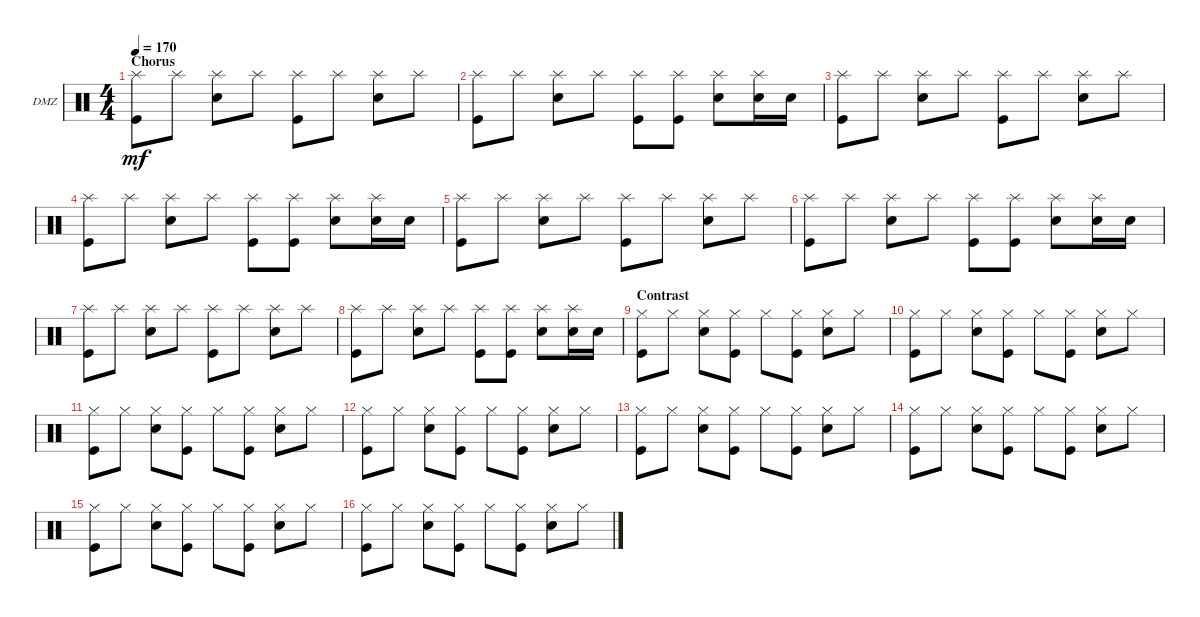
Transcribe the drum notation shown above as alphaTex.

\defaultSystemsLayout 4
\bracketExtendMode groupsimilarinstruments
\firstSystemTrackNameOrientation horizontal
\otherSystemsTrackNameOrientation horizontal
\track ("Drumz" "DMZ") {instrument percussion}
\staff {score}
\articulation defaults
\ts (4 4)
\section ("" "Chorus")
\tempo 170
\clef neutral
\ks c
("Splash (hit)" "Kick (hit)").8{dy mf} "Splash (hit)".8 ("Splash (hit)" "Snare (hit) 2").8 "Splash (hit)".8 ("Splash (hit)" "Kick (hit)").8 "Splash (hit)".8 ("Splash (hit)" "Snare (hit) 2").8 "Splash (hit)".8 |
("Splash (hit)" "Kick (hit)").8 "Splash (hit)".8 ("Splash (hit)" "Snare (hit) 2").8 "Splash (hit)".8 ("Splash (hit)" "Kick (hit)").8 ("Splash (hit)" "Kick (hit)").8 ("Splash (hit)" "Snare (hit) 2").8 ("Snare (hit) 2" "Splash (hit)").16 "Snare (hit) 2".16 |
("Splash (hit)" "Kick (hit)").8 "Splash (hit)".8 ("Splash (hit)" "Snare (hit) 2").8 "Splash (hit)".8 ("Splash (hit)" "Kick (hit)").8 "Splash (hit)".8 ("Splash (hit)" "Snare (hit) 2").8 "Splash (hit)".8 |
("Splash (hit)" "Kick (hit)").8 "Splash (hit)".8 ("Splash (hit)" "Snare (hit) 2").8 "Splash (hit)".8 ("Splash (hit)" "Kick (hit)").8 ("Splash (hit)" "Kick (hit)").8 ("Splash (hit)" "Snare (hit) 2").8 ("Snare (hit) 2" "Splash (hit)").16 "Snare (hit) 2".16 |
("Splash (hit)" "Kick (hit)").8 "Splash (hit)".8 ("Splash (hit)" "Snare (hit) 2").8 "Splash (hit)".8 ("Splash (hit)" "Kick (hit)").8 "Splash (hit)".8 ("Splash (hit)" "Snare (hit) 2").8 "Splash (hit)".8 |
("Splash (hit)" "Kick (hit)").8 "Splash (hit)".8 ("Splash (hit)" "Snare (hit) 2").8 "Splash (hit)".8 ("Splash (hit)" "Kick (hit)").8 ("Splash (hit)" "Kick (hit)").8 ("Splash (hit)" "Snare (hit) 2").8 ("Snare (hit) 2" "Splash (hit)").16 "Snare (hit) 2".16 |
("Splash (hit)" "Kick (hit)").8 "Splash (hit)".8 ("Splash (hit)" "Snare (hit) 2").8 "Splash (hit)".8 ("Splash (hit)" "Kick (hit)").8 "Splash (hit)".8 ("Splash (hit)" "Snare (hit) 2").8 "Splash (hit)".8 |
("Splash (hit)" "Kick (hit)").8 "Splash (hit)".8 ("Splash (hit)" "Snare (hit) 2").8 "Splash (hit)".8 ("Splash (hit)" "Kick (hit)").8 ("Splash (hit)" "Kick (hit)").8 ("Splash (hit)" "Snare (hit) 2").8 ("Snare (hit) 2" "Splash (hit)").16 "Snare (hit) 2".16 |
\section ("" "Contrast")
("Hi-Hat (closed)" "Kick (hit)").8 "Hi-Hat (closed)".8 ("Hi-Hat (closed)" "Snare (hit) 2").8 ("Hi-Hat (closed)" "Kick (hit)").8 "Hi-Hat (closed)".8 ("Hi-Hat (closed)" "Kick (hit)").8 ("Hi-Hat (closed)" "Snare (hit) 2").8 "Hi-Hat (closed)".8 |
("Hi-Hat (closed)" "Kick (hit)").8 "Hi-Hat (closed)".8 ("Hi-Hat (closed)" "Snare (hit) 2").8 ("Hi-Hat (closed)" "Kick (hit)").8 "Hi-Hat (closed)".8 ("Hi-Hat (closed)" "Kick (hit)").8 ("Hi-Hat (closed)" "Snare (hit) 2").8 "Hi-Hat (closed)".8 |
("Hi-Hat (closed)" "Kick (hit)").8 "Hi-Hat (closed)".8 ("Hi-Hat (closed)" "Snare (hit) 2").8 ("Hi-Hat (closed)" "Kick (hit)").8 "Hi-Hat (closed)".8 ("Hi-Hat (closed)" "Kick (hit)").8 ("Hi-Hat (closed)" "Snare (hit) 2").8 "Hi-Hat (closed)".8 |
("Hi-Hat (closed)" "Kick (hit)").8 "Hi-Hat (closed)".8 ("Hi-Hat (closed)" "Snare (hit) 2").8 ("Hi-Hat (closed)" "Kick (hit)").8 "Hi-Hat (closed)".8 ("Hi-Hat (closed)" "Kick (hit)").8 ("Hi-Hat (closed)" "Snare (hit) 2").8 "Hi-Hat (closed)".8 |
("Hi-Hat (closed)" "Kick (hit)").8 "Hi-Hat (closed)".8 ("Hi-Hat (closed)" "Snare (hit) 2").8 ("Hi-Hat (closed)" "Kick (hit)").8 "Hi-Hat (closed)".8 ("Hi-Hat (closed)" "Kick (hit)").8 ("Hi-Hat (closed)" "Snare (hit) 2").8 "Hi-Hat (closed)".8 |
("Hi-Hat (closed)" "Kick (hit)").8 "Hi-Hat (closed)".8 ("Hi-Hat (closed)" "Snare (hit) 2").8 ("Hi-Hat (closed)" "Kick (hit)").8 "Hi-Hat (closed)".8 ("Hi-Hat (closed)" "Kick (hit)").8 ("Hi-Hat (closed)" "Snare (hit) 2").8 "Hi-Hat (closed)".8 |
("Hi-Hat (closed)" "Kick (hit)").8 "Hi-Hat (closed)".8 ("Hi-Hat (closed)" "Snare (hit) 2").8 ("Hi-Hat (closed)" "Kick (hit)").8 "Hi-Hat (closed)".8 ("Hi-Hat (closed)" "Kick (hit)").8 ("Hi-Hat (closed)" "Snare (hit) 2").8 "Hi-Hat (closed)".8 |
("Hi-Hat (closed)" "Kick (hit)").8 "Hi-Hat (closed)".8 ("Hi-Hat (closed)" "Snare (hit) 2").8 ("Hi-Hat (closed)" "Kick (hit)").8 "Hi-Hat (closed)".8 ("Hi-Hat (closed)" "Kick (hit)").8 ("Hi-Hat (closed)" "Snare (hit) 2").8 "Hi-Hat (closed)".8
